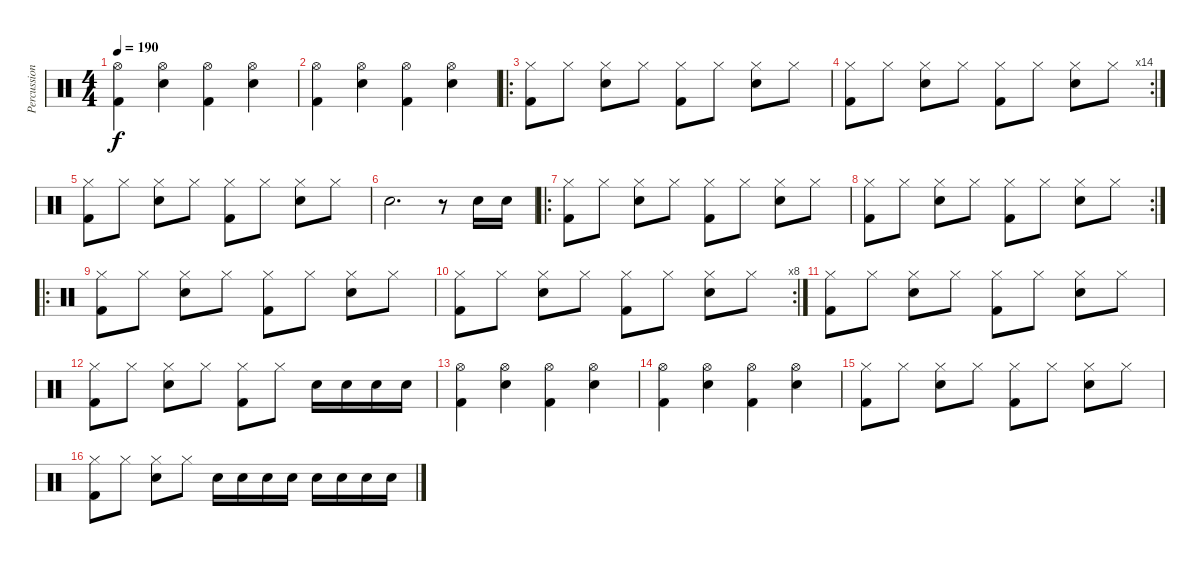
\track ("Percussion" "Percussion") {instrument percussion}
\staff {score}
\articulation defaults
\ts (4 4)
\tempo 190
\clef neutral
\ks c
("Hi-Hat (open)" "Kick (hit) 2").4{dy f} ("Hi-Hat (open)" "Snare (hit) 2").4 ("Hi-Hat (open)" "Kick (hit) 2").4 ("Hi-Hat (open)" "Snare (hit) 2").4 |
("Hi-Hat (open)" "Kick (hit) 2").4 ("Hi-Hat (open)" "Snare (hit) 2").4 ("Hi-Hat (open)" "Kick (hit) 2").4 ("Hi-Hat (open)" "Snare (hit) 2").4 |
\ro
("Hi-Hat (closed)" "Kick (hit) 2").8 "Hi-Hat (closed)".8 ("Hi-Hat (closed)" "Snare (hit) 2").8 "Hi-Hat (closed)".8 ("Hi-Hat (closed)" "Kick (hit) 2").8 "Hi-Hat (closed)".8 ("Hi-Hat (closed)" "Snare (hit) 2").8 "Hi-Hat (closed)".8 |
\rc 14
("Hi-Hat (closed)" "Kick (hit) 2").8 "Hi-Hat (closed)".8 ("Hi-Hat (closed)" "Snare (hit) 2").8 "Hi-Hat (closed)".8 ("Hi-Hat (closed)" "Kick (hit) 2").8 "Hi-Hat (closed)".8 ("Hi-Hat (closed)" "Snare (hit) 2").8 "Hi-Hat (closed)".8 |
("Hi-Hat (closed)" "Kick (hit) 2").8 "Hi-Hat (closed)".8 ("Hi-Hat (closed)" "Snare (hit) 2").8 "Hi-Hat (closed)".8 ("Hi-Hat (closed)" "Kick (hit) 2").8 "Hi-Hat (closed)".8 ("Hi-Hat (closed)" "Snare (hit) 2").8 "Hi-Hat (closed)".8 |
"Snare (hit) 2".2{d} r.8 "Snare (hit) 2".16 "Snare (hit) 2".16 |
\ro
("Hi-Hat (closed)" "Kick (hit) 2").8 "Hi-Hat (closed)".8 ("Hi-Hat (closed)" "Snare (hit) 2").8 "Hi-Hat (closed)".8 ("Hi-Hat (closed)" "Kick (hit) 2").8 "Hi-Hat (closed)".8 ("Hi-Hat (closed)" "Snare (hit) 2").8 "Hi-Hat (closed)".8 |
\rc 2
("Hi-Hat (closed)" "Kick (hit) 2").8 "Hi-Hat (closed)".8 ("Hi-Hat (closed)" "Snare (hit) 2").8 "Hi-Hat (closed)".8 ("Hi-Hat (closed)" "Kick (hit) 2").8 "Hi-Hat (closed)".8 ("Hi-Hat (closed)" "Snare (hit) 2").8 "Hi-Hat (closed)".8 |
\ro
("Hi-Hat (closed)" "Kick (hit) 2").8 "Hi-Hat (closed)".8 ("Hi-Hat (closed)" "Snare (hit) 2").8 "Hi-Hat (closed)".8 ("Hi-Hat (closed)" "Kick (hit) 2").8 "Hi-Hat (closed)".8 ("Hi-Hat (closed)" "Snare (hit) 2").8 "Hi-Hat (closed)".8 |
\rc 8
("Hi-Hat (closed)" "Kick (hit) 2").8 "Hi-Hat (closed)".8 ("Hi-Hat (closed)" "Snare (hit) 2").8 "Hi-Hat (closed)".8 ("Hi-Hat (closed)" "Kick (hit) 2").8 "Hi-Hat (closed)".8 ("Hi-Hat (closed)" "Snare (hit) 2").8 "Hi-Hat (closed)".8 |
("Hi-Hat (closed)" "Kick (hit) 2").8 "Hi-Hat (closed)".8 ("Hi-Hat (closed)" "Snare (hit) 2").8 "Hi-Hat (closed)".8 ("Hi-Hat (closed)" "Kick (hit) 2").8 "Hi-Hat (closed)".8 ("Hi-Hat (closed)" "Snare (hit) 2").8 "Hi-Hat (closed)".8 |
("Hi-Hat (closed)" "Kick (hit) 2").8 "Hi-Hat (closed)".8 ("Hi-Hat (closed)" "Snare (hit) 2").8 "Hi-Hat (closed)".8 ("Hi-Hat (closed)" "Kick (hit) 2").8 "Hi-Hat (closed)".8 "Snare (hit) 2".16 "Snare (hit) 2".16 "Snare (hit) 2".16 "Snare (hit) 2".16 |
("Hi-Hat (open)" "Kick (hit) 2").4 ("Hi-Hat (open)" "Snare (hit) 2").4 ("Hi-Hat (open)" "Kick (hit) 2").4 ("Hi-Hat (open)" "Snare (hit) 2").4 |
("Hi-Hat (open)" "Kick (hit) 2").4 ("Hi-Hat (open)" "Snare (hit) 2").4 ("Hi-Hat (open)" "Kick (hit) 2").4 ("Hi-Hat (open)" "Snare (hit) 2").4 |
("Hi-Hat (closed)" "Kick (hit) 2").8 "Hi-Hat (closed)".8 ("Hi-Hat (closed)" "Snare (hit) 2").8 "Hi-Hat (closed)".8 ("Hi-Hat (closed)" "Kick (hit) 2").8 "Hi-Hat (closed)".8 ("Hi-Hat (closed)" "Snare (hit) 2").8 "Hi-Hat (closed)".8 |
("Hi-Hat (closed)" "Kick (hit) 2").8 "Hi-Hat (closed)".8 ("Hi-Hat (closed)" "Snare (hit) 2").8 "Hi-Hat (closed)".8 "Snare (hit) 2".16 "Snare (hit) 2".16 "Snare (hit) 2".16 "Snare (hit) 2".16 "Snare (hit) 2".16 "Snare (hit) 2".16 "Snare (hit) 2".16 "Snare (hit) 2".16
